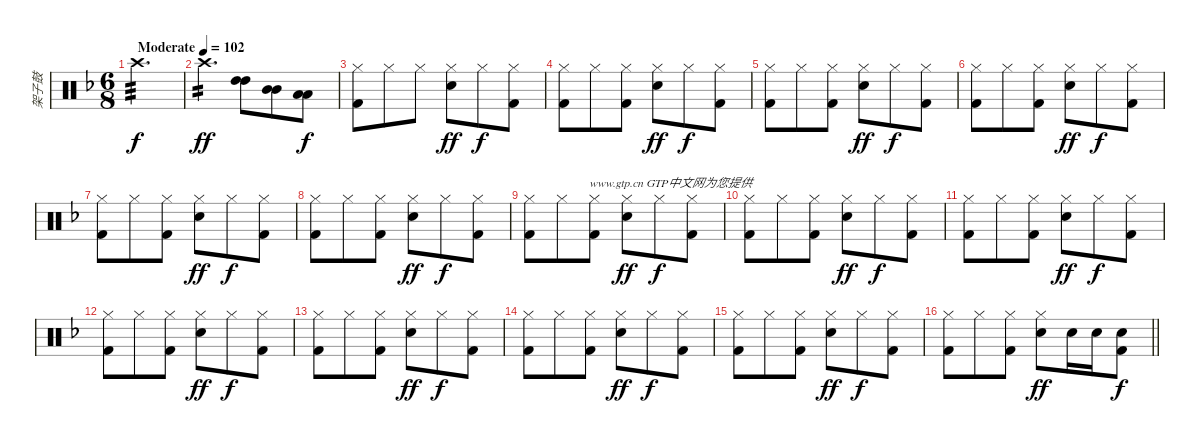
\track ("架子鼓" "架子鼓") {instrument percussion}
\staff {score}
\articulation defaults
\ts (6 8)
\tempo (102 "Moderate")
\clef neutral
\ks f "Crash high (hit)".2{d tp 3 dy f}
|
"Crash high (hit)".4{d tp 2 dy ff} ("High Tom (hit)" "High Tom (hit)").8 ("Mid Tom (hit)" "Mid Tom (hit)").8 ("Low Tom (hit)" "Low Tom (hit)").8{dy f} |
("Hi-Hat (closed)" "Kick (hit) 2").8 "Hi-Hat (closed)".8 "Hi-Hat (closed)".8 ("Hi-Hat (closed)" "Electric Snare (hit)").8{dy ff} "Hi-Hat (closed)".8{dy f} ("Hi-Hat (closed)" "Kick (hit) 2").8 |
("Hi-Hat (closed)" "Kick (hit) 2").8 "Hi-Hat (closed)".8 ("Hi-Hat (closed)" "Kick (hit) 2").8 ("Hi-Hat (closed)" "Electric Snare (hit)").8{dy ff} "Hi-Hat (closed)".8{dy f} ("Hi-Hat (closed)" "Kick (hit) 2").8 |
("Hi-Hat (closed)" "Kick (hit) 2").8 "Hi-Hat (closed)".8 ("Hi-Hat (closed)" "Kick (hit) 2").8 ("Hi-Hat (closed)" "Electric Snare (hit)").8{dy ff} "Hi-Hat (closed)".8{dy f} ("Hi-Hat (closed)" "Kick (hit) 2").8 |
("Hi-Hat (closed)" "Kick (hit) 2").8 "Hi-Hat (closed)".8 ("Hi-Hat (closed)" "Kick (hit) 2").8 ("Hi-Hat (closed)" "Electric Snare (hit)").8{dy ff} "Hi-Hat (closed)".8{dy f} ("Hi-Hat (closed)" "Kick (hit) 2").8 |
("Hi-Hat (closed)" "Kick (hit) 2").8 "Hi-Hat (closed)".8 ("Hi-Hat (closed)" "Kick (hit) 2").8 ("Hi-Hat (closed)" "Electric Snare (hit)").8{dy ff} "Hi-Hat (closed)".8{dy f} ("Hi-Hat (closed)" "Kick (hit) 2").8 |
("Hi-Hat (closed)" "Kick (hit) 2").8 "Hi-Hat (closed)".8 ("Hi-Hat (closed)" "Kick (hit) 2").8 ("Hi-Hat (closed)" "Electric Snare (hit)").8{dy ff} "Hi-Hat (closed)".8{dy f} ("Hi-Hat (closed)" "Kick (hit) 2").8 |
("Hi-Hat (closed)" "Kick (hit) 2").8{txt "                    www.gtp.cn GTP中文网为您提供"} "Hi-Hat (closed)".8 ("Hi-Hat (closed)" "Kick (hit) 2").8 ("Hi-Hat (closed)" "Electric Snare (hit)").8{dy ff} "Hi-Hat (closed)".8{dy f} ("Hi-Hat (closed)" "Kick (hit) 2").8 |
("Hi-Hat (closed)" "Kick (hit) 2").8 "Hi-Hat (closed)".8 ("Hi-Hat (closed)" "Kick (hit) 2").8 ("Hi-Hat (closed)" "Electric Snare (hit)").8{dy ff} "Hi-Hat (closed)".8{dy f} ("Hi-Hat (closed)" "Kick (hit) 2").8 |
("Hi-Hat (closed)" "Kick (hit) 2").8 "Hi-Hat (closed)".8 ("Hi-Hat (closed)" "Kick (hit) 2").8 ("Hi-Hat (closed)" "Electric Snare (hit)").8{dy ff} "Hi-Hat (closed)".8{dy f} ("Hi-Hat (closed)" "Kick (hit) 2").8 |
("Hi-Hat (closed)" "Kick (hit) 2").8 "Hi-Hat (closed)".8 ("Hi-Hat (closed)" "Kick (hit) 2").8 ("Hi-Hat (closed)" "Electric Snare (hit)").8{dy ff} "Hi-Hat (closed)".8{dy f} ("Hi-Hat (closed)" "Kick (hit) 2").8 |
("Hi-Hat (closed)" "Kick (hit) 2").8 "Hi-Hat (closed)".8 ("Hi-Hat (closed)" "Kick (hit) 2").8 ("Hi-Hat (closed)" "Electric Snare (hit)").8{dy ff} "Hi-Hat (closed)".8{dy f} ("Hi-Hat (closed)" "Kick (hit) 2").8 |
("Hi-Hat (closed)" "Kick (hit) 2").8 "Hi-Hat (closed)".8 ("Hi-Hat (closed)" "Kick (hit) 2").8 ("Hi-Hat (closed)" "Electric Snare (hit)").8{dy ff} "Hi-Hat (closed)".8{dy f} ("Hi-Hat (closed)" "Kick (hit) 2").8 |
("Hi-Hat (closed)" "Kick (hit) 2").8 "Hi-Hat (closed)".8 ("Hi-Hat (closed)" "Kick (hit) 2").8 ("Hi-Hat (closed)" "Electric Snare (hit)").8{dy ff} "Hi-Hat (closed)".8{dy f} ("Hi-Hat (closed)" "Kick (hit) 2").8 |
\barLineRight lightlight
("Hi-Hat (closed)" "Kick (hit) 2").8 "Hi-Hat (closed)".8 ("Hi-Hat (closed)" "Kick (hit) 2").8 ("Hi-Hat (closed)" "Electric Snare (hit)").8{dy ff} "Electric Snare (hit)".16 "Electric Snare (hit)".16 ("Electric Snare (hit)" "Kick (hit) 2").8{dy f}
